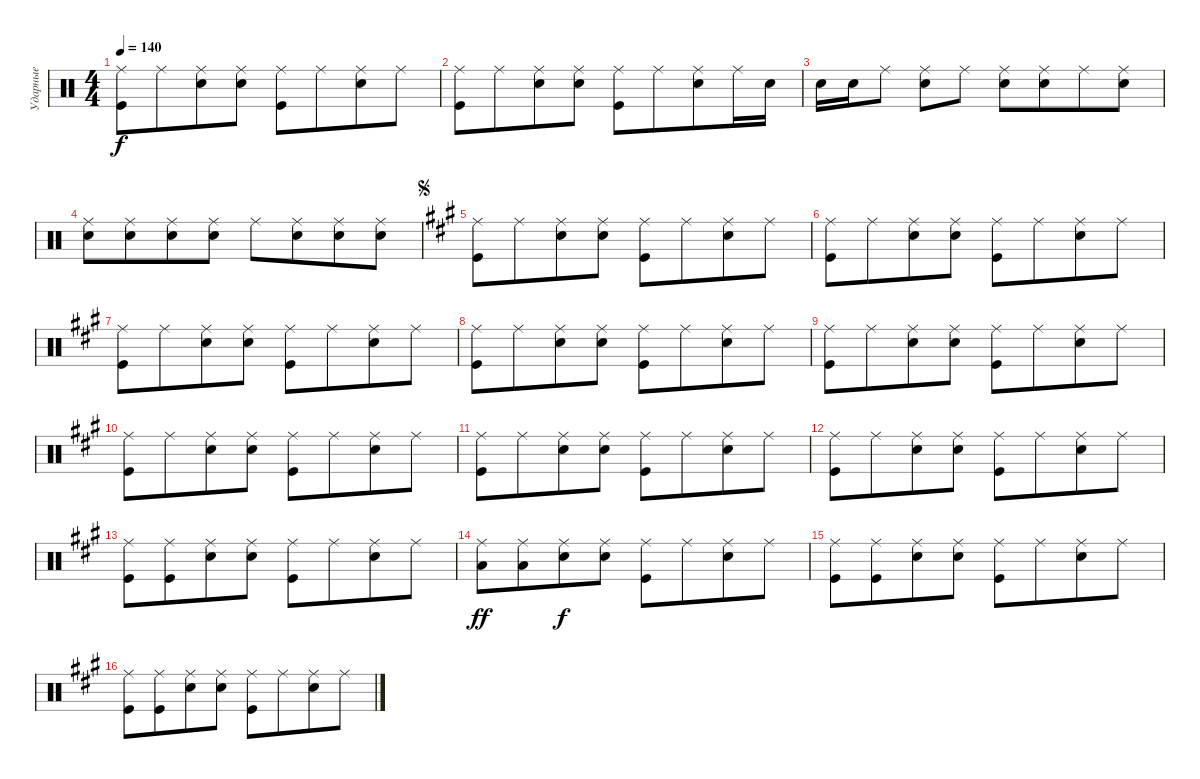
\track ("Ударные" "Ударные") {instrument percussion}
\staff {score}
\articulation defaults
\ts (4 4)
\tempo 140
\clef neutral
\ks aminor
("Kick (hit)" "Ride (middle)").8{dy f} "Ride (middle)".8{beam merge} ("Snare (hit) 2" "Ride (middle)").8 ("Ride (middle)" "Snare (hit) 2").8 ("Kick (hit)" "Ride (middle)").8 "Ride (middle)".8{beam merge} ("Snare (hit) 2" "Ride (middle)").8 "Ride (middle)".8 |
("Kick (hit)" "Ride (middle)").8 "Ride (middle)".8{beam merge} ("Snare (hit) 2" "Ride (middle)").8 ("Ride (middle)" "Snare (hit) 2").8 ("Kick (hit)" "Ride (middle)").8 "Ride (middle)".8{beam merge} ("Snare (hit) 2" "Ride (middle)").8 "Ride (middle)".16 "Snare (hit) 2".16 |
"Snare (hit) 2".16 "Snare (hit) 2".16 "Ride (middle)".8 ("Snare (hit) 2" "Ride (middle)").8 "Ride (middle)".8 ("Snare (hit) 2" "Ride (middle)").8 ("Snare (hit) 2" "Ride (middle)").8{beam merge} "Ride (middle)".8 ("Snare (hit) 2" "Ride (middle)").8 |
("Snare (hit) 2" "Ride (middle)").8 ("Snare (hit) 2" "Ride (middle)").8{beam merge} ("Snare (hit) 2" "Ride (middle)").8 ("Snare (hit) 2" "Ride (middle)").8 "Ride (middle)".8 ("Snare (hit) 2" "Ride (middle)").8{beam merge} ("Snare (hit) 2" "Ride (middle)").8 ("Snare (hit) 2" "Ride (middle)").8 |
\jump segno
\ks a
("Kick (hit)" "Ride (middle)").8 "Ride (middle)".8{beam merge} ("Snare (hit) 2" "Ride (middle)").8 ("Ride (middle)" "Snare (hit) 2").8 ("Kick (hit)" "Ride (middle)").8 "Ride (middle)".8{beam merge} ("Snare (hit) 2" "Ride (middle)").8 "Ride (middle)".8 |
("Kick (hit)" "Ride (middle)").8 "Ride (middle)".8{beam merge} ("Snare (hit) 2" "Ride (middle)").8 ("Ride (middle)" "Snare (hit) 2").8 ("Kick (hit)" "Ride (middle)").8 "Ride (middle)".8{beam merge} ("Snare (hit) 2" "Ride (middle)").8 "Ride (middle)".8 |
("Kick (hit)" "Ride (middle)").8 "Ride (middle)".8{beam merge} ("Snare (hit) 2" "Ride (middle)").8 ("Ride (middle)" "Snare (hit) 2").8 ("Kick (hit)" "Ride (middle)").8 "Ride (middle)".8{beam merge} ("Snare (hit) 2" "Ride (middle)").8 "Ride (middle)".8 |
("Kick (hit)" "Ride (middle)").8 "Ride (middle)".8{beam merge} ("Snare (hit) 2" "Ride (middle)").8 ("Ride (middle)" "Snare (hit) 2").8 ("Kick (hit)" "Ride (middle)").8 "Ride (middle)".8{beam merge} ("Snare (hit) 2" "Ride (middle)").8 "Ride (middle)".8 |
("Kick (hit)" "Ride (middle)").8 "Ride (middle)".8{beam merge} ("Snare (hit) 2" "Ride (middle)").8 ("Ride (middle)" "Snare (hit) 2").8 ("Kick (hit)" "Ride (middle)").8 "Ride (middle)".8{beam merge} ("Snare (hit) 2" "Ride (middle)").8 "Ride (middle)".8 |
("Kick (hit)" "Ride (middle)").8 "Ride (middle)".8{beam merge} ("Snare (hit) 2" "Ride (middle)").8 ("Ride (middle)" "Snare (hit) 2").8 ("Kick (hit)" "Ride (middle)").8 "Ride (middle)".8{beam merge} ("Snare (hit) 2" "Ride (middle)").8 "Ride (middle)".8 |
("Kick (hit)" "Ride (middle)").8 "Ride (middle)".8{beam merge} ("Snare (hit) 2" "Ride (middle)").8 ("Ride (middle)" "Snare (hit) 2").8 ("Kick (hit)" "Ride (middle)").8 "Ride (middle)".8{beam merge} ("Snare (hit) 2" "Ride (middle)").8 "Ride (middle)".8 |
("Kick (hit)" "Ride (middle)").8 "Ride (middle)".8{beam merge} ("Snare (hit) 2" "Ride (middle)").8 ("Ride (middle)" "Snare (hit) 2").8 ("Kick (hit)" "Ride (middle)").8 "Ride (middle)".8{beam merge} ("Snare (hit) 2" "Ride (middle)").8 "Ride (middle)".8 |
("Kick (hit)" "Ride (middle)").8 ("Kick (hit)" "Ride (middle)").8{beam merge} ("Snare (hit) 2" "Ride (middle)").8 ("Snare (hit) 2" "Ride (middle)").8 ("Kick (hit)" "Ride (middle)").8{beam merge} "Ride (middle)".8{beam merge} ("Snare (hit) 2" "Ride (middle)").8{beam merge} "Ride (middle)".8 |
("Low Floor Tom (hit)" "Ride (middle)").8{dy ff} ("Low Floor Tom (hit)" "Ride (middle)").8{beam merge} ("Snare (hit) 2" "Ride (middle)").8{dy f} ("Snare (hit) 2" "Ride (middle)").8 ("Kick (hit)" "Ride (middle)").8{beam merge} "Ride (middle)".8{beam merge} ("Snare (hit) 2" "Ride (middle)").8{beam merge} "Ride (middle)".8 |
("Kick (hit)" "Ride (middle)").8 ("Kick (hit)" "Ride (middle)").8{beam merge} ("Snare (hit) 2" "Ride (middle)").8 ("Snare (hit) 2" "Ride (middle)").8 ("Kick (hit)" "Ride (middle)").8{beam merge} "Ride (middle)".8{beam merge} ("Snare (hit) 2" "Ride (middle)").8{beam merge} "Ride (middle)".8 |
("Kick (hit)" "Ride (middle)").8 ("Kick (hit)" "Ride (middle)").8{beam merge} ("Snare (hit) 2" "Ride (middle)").8 ("Snare (hit) 2" "Ride (middle)").8 ("Kick (hit)" "Ride (middle)").8{beam merge} "Ride (middle)".8{beam merge} ("Snare (hit) 2" "Ride (middle)").8{beam merge} "Ride (middle)".8
